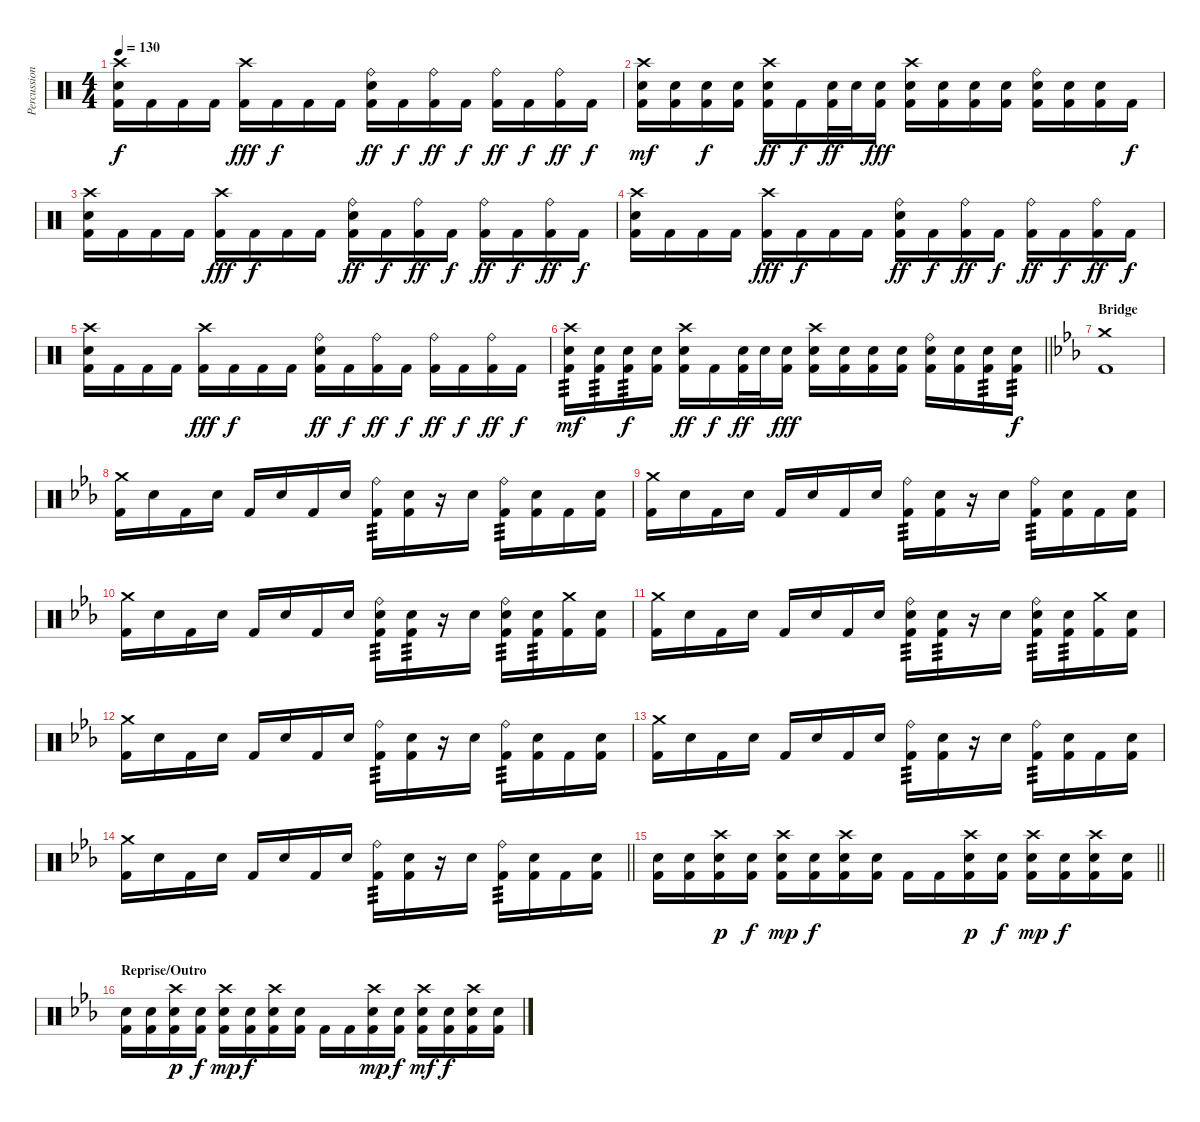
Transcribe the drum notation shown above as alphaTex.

\track ("Percussion" "Percussion") {instrument percussion}
\staff {score}
\articulation defaults
\ts (4 4)
\tempo 130
\clef neutral
\ks c
("Crash high (hit)" "Electric Snare (hit)" "Kick (hit) 2").16{dy f} "Kick (hit) 2".16 "Kick (hit) 2".16 "Kick (hit) 2".16 ("Crash high (hit)" "Kick (hit) 2").16{dy fff} "Kick (hit) 2".16{dy f} "Kick (hit) 2".16 "Kick (hit) 2".16 ("Ride (bell)" "Electric Snare (hit)" "Kick (hit) 2").16{dy ff} "Kick (hit) 2".16{dy f} ("Ride (bell)" "Kick (hit) 2").16{dy ff} "Kick (hit) 2".16{dy f} ("Ride (bell)" "Kick (hit) 2").16{dy ff} "Kick (hit) 2".16{dy f} ("Ride (bell)" "Kick (hit) 2").16{dy ff} "Kick (hit) 2".16{dy f} |
("Crash high (hit)" "Electric Snare (hit)" "Kick (hit) 2").16{dy mf} ("Electric Snare (hit)" "Kick (hit) 2").16 ("Electric Snare (hit)" "Kick (hit) 2").16{dy f} ("Electric Snare (hit)" "Kick (hit) 2").16 ("Crash high (hit)" "Electric Snare (hit)" "Kick (hit) 2").16{dy ff} "Kick (hit) 2".16{dy f} ("Electric Snare (hit)" "Kick (hit) 2").32{dy ff} "Electric Snare (hit)".32 ("Electric Snare (hit)" "Kick (hit) 2").16{dy fff} ("Crash high (hit)" "Electric Snare (hit)" "Kick (hit) 2").16 ("Electric Snare (hit)" "Kick (hit) 2").16 ("Electric Snare (hit)" "Kick (hit) 2").16 ("Electric Snare (hit)" "Kick (hit) 2").16 ("Ride (bell)" "Electric Snare (hit)" "Kick (hit) 2").16 ("Electric Snare (hit)" "Kick (hit) 2").16 ("Electric Snare (hit)" "Kick (hit) 2").16 "Kick (hit) 2".16{dy f} |
("Crash high (hit)" "Electric Snare (hit)" "Kick (hit) 2").16 "Kick (hit) 2".16 "Kick (hit) 2".16 "Kick (hit) 2".16 ("Crash high (hit)" "Kick (hit) 2").16{dy fff} "Kick (hit) 2".16{dy f} "Kick (hit) 2".16 "Kick (hit) 2".16 ("Ride (bell)" "Electric Snare (hit)" "Kick (hit) 2").16{dy ff} "Kick (hit) 2".16{dy f} ("Ride (bell)" "Kick (hit) 2").16{dy ff} "Kick (hit) 2".16{dy f} ("Ride (bell)" "Kick (hit) 2").16{dy ff} "Kick (hit) 2".16{dy f} ("Ride (bell)" "Kick (hit) 2").16{dy ff} "Kick (hit) 2".16{dy f} |
("Crash high (hit)" "Electric Snare (hit)" "Kick (hit) 2").16 "Kick (hit) 2".16 "Kick (hit) 2".16 "Kick (hit) 2".16 ("Crash high (hit)" "Kick (hit) 2").16{dy fff} "Kick (hit) 2".16{dy f} "Kick (hit) 2".16 "Kick (hit) 2".16 ("Ride (bell)" "Electric Snare (hit)" "Kick (hit) 2").16{dy ff} "Kick (hit) 2".16{dy f} ("Ride (bell)" "Kick (hit) 2").16{dy ff} "Kick (hit) 2".16{dy f} ("Ride (bell)" "Kick (hit) 2").16{dy ff} "Kick (hit) 2".16{dy f} ("Ride (bell)" "Kick (hit) 2").16{dy ff} "Kick (hit) 2".16{dy f} |
("Crash high (hit)" "Electric Snare (hit)" "Kick (hit) 2").16 "Kick (hit) 2".16 "Kick (hit) 2".16 "Kick (hit) 2".16 ("Crash high (hit)" "Kick (hit) 2").16{dy fff} "Kick (hit) 2".16{dy f} "Kick (hit) 2".16 "Kick (hit) 2".16 ("Ride (bell)" "Electric Snare (hit)" "Kick (hit) 2").16{dy ff} "Kick (hit) 2".16{dy f} ("Ride (bell)" "Kick (hit) 2").16{dy ff} "Kick (hit) 2".16{dy f} ("Ride (bell)" "Kick (hit) 2").16{dy ff} "Kick (hit) 2".16{dy f} ("Ride (bell)" "Kick (hit) 2").16{dy ff} "Kick (hit) 2".16{dy f} |
\barLineRight lightlight
("Crash high (hit)" "Electric Snare (hit)" "Kick (hit) 2").16{tp 3 dy mf} ("Electric Snare (hit)" "Kick (hit) 2").16{tp 3} ("Electric Snare (hit)" "Kick (hit) 2").16{tp 3 dy f} ("Electric Snare (hit)" "Kick (hit) 2").16 ("Crash high (hit)" "Electric Snare (hit)" "Kick (hit) 2").16{dy ff} "Kick (hit) 2".16{dy f} ("Electric Snare (hit)" "Kick (hit) 2").32{dy ff} "Electric Snare (hit)".32 ("Electric Snare (hit)" "Kick (hit) 2").16{dy fff} ("Crash high (hit)" "Electric Snare (hit)" "Kick (hit) 2").16 ("Electric Snare (hit)" "Kick (hit) 2").16 ("Electric Snare (hit)" "Kick (hit) 2").16 ("Electric Snare (hit)" "Kick (hit) 2").16 ("Ride (bell)" "Electric Snare (hit)" "Kick (hit) 2").16 ("Electric Snare (hit)" "Kick (hit) 2").16 ("Electric Snare (hit)" "Kick (hit) 2").16{tp 3} ("Electric Snare (hit)" "Kick (hit) 2").16{tp 3 dy f} |
\section ("" "Bridge")
\ks eb
("Crash medium (hit)" "Kick (hit) 2").1 |
("Crash medium (hit)" "Kick (hit) 2").16 "Electric Snare (hit)".16 "Kick (hit) 2".16 "Electric Snare (hit)".16 "Kick (hit) 2".16 "Electric Snare (hit)".16 "Kick (hit) 2".16 "Electric Snare (hit)".16 ("Ride (bell)" "Kick (hit) 2").16{tp 3} ("Electric Snare (hit)" "Kick (hit) 2").16 r.16 "Electric Snare (hit)".16 ("Ride (bell)" "Kick (hit) 2").16{tp 3} ("Electric Snare (hit)" "Kick (hit) 2").16 "Kick (hit) 2".16 ("Electric Snare (hit)" "Kick (hit) 2").16 |
("Crash medium (hit)" "Kick (hit) 2").16 "Electric Snare (hit)".16 "Kick (hit) 2".16 "Electric Snare (hit)".16 "Kick (hit) 2".16 "Electric Snare (hit)".16 "Kick (hit) 2".16 "Electric Snare (hit)".16 ("Ride (bell)" "Kick (hit) 2").16{tp 3} ("Electric Snare (hit)" "Kick (hit) 2").16 r.16 "Electric Snare (hit)".16 ("Ride (bell)" "Kick (hit) 2").16{tp 3} ("Electric Snare (hit)" "Kick (hit) 2").16 "Kick (hit) 2".16 ("Electric Snare (hit)" "Kick (hit) 2").16 |
("Crash medium (hit)" "Kick (hit) 2").16 "Electric Snare (hit)".16 "Kick (hit) 2".16 "Electric Snare (hit)".16 "Kick (hit) 2".16 "Electric Snare (hit)".16 "Kick (hit) 2".16 "Electric Snare (hit)".16 ("Ride (bell)" "Electric Snare (hit)" "Kick (hit) 2").16{tp 3} ("Electric Snare (hit)" "Kick (hit) 2").16{tp 3} r.16 "Electric Snare (hit)".16 ("Ride (bell)" "Electric Snare (hit)" "Kick (hit) 2").16{tp 3} ("Electric Snare (hit)" "Kick (hit) 2").16{tp 3} ("Crash medium (hit)" "Kick (hit) 2").16 ("Electric Snare (hit)" "Kick (hit) 2").16 |
("Crash medium (hit)" "Kick (hit) 2").16 "Electric Snare (hit)".16 "Kick (hit) 2".16 "Electric Snare (hit)".16 "Kick (hit) 2".16 "Electric Snare (hit)".16 "Kick (hit) 2".16 "Electric Snare (hit)".16 ("Ride (bell)" "Electric Snare (hit)" "Kick (hit) 2").16{tp 3} ("Electric Snare (hit)" "Kick (hit) 2").16{tp 3} r.16 "Electric Snare (hit)".16 ("Ride (bell)" "Electric Snare (hit)" "Kick (hit) 2").16{tp 3} ("Electric Snare (hit)" "Kick (hit) 2").16{tp 3} ("Crash medium (hit)" "Kick (hit) 2").16 ("Electric Snare (hit)" "Kick (hit) 2").16 |
("Crash medium (hit)" "Kick (hit) 2").16 "Electric Snare (hit)".16 "Kick (hit) 2".16 "Electric Snare (hit)".16 "Kick (hit) 2".16 "Electric Snare (hit)".16 "Kick (hit) 2".16 "Electric Snare (hit)".16 ("Ride (bell)" "Kick (hit) 2").16{tp 3} ("Electric Snare (hit)" "Kick (hit) 2").16 r.16 "Electric Snare (hit)".16 ("Ride (bell)" "Kick (hit) 2").16{tp 3} ("Electric Snare (hit)" "Kick (hit) 2").16 "Kick (hit) 2".16 ("Electric Snare (hit)" "Kick (hit) 2").16 |
("Crash medium (hit)" "Kick (hit) 2").16 "Electric Snare (hit)".16 "Kick (hit) 2".16 "Electric Snare (hit)".16 "Kick (hit) 2".16 "Electric Snare (hit)".16 "Kick (hit) 2".16 "Electric Snare (hit)".16 ("Ride (bell)" "Kick (hit) 2").16{tp 3} ("Electric Snare (hit)" "Kick (hit) 2").16 r.16 "Electric Snare (hit)".16 ("Ride (bell)" "Kick (hit) 2").16{tp 3} ("Electric Snare (hit)" "Kick (hit) 2").16 "Kick (hit) 2".16 ("Electric Snare (hit)" "Kick (hit) 2").16 |
\barLineRight lightlight
("Crash medium (hit)" "Kick (hit) 2").16 "Electric Snare (hit)".16 "Kick (hit) 2".16 "Electric Snare (hit)".16 "Kick (hit) 2".16 "Electric Snare (hit)".16 "Kick (hit) 2".16 "Electric Snare (hit)".16 ("Ride (bell)" "Kick (hit) 2").16{tp 3} ("Electric Snare (hit)" "Kick (hit) 2").16 r.16 "Electric Snare (hit)".16 ("Ride (bell)" "Kick (hit) 2").16{tp 3} ("Electric Snare (hit)" "Kick (hit) 2").16 "Kick (hit) 2".16 ("Electric Snare (hit)" "Kick (hit) 2").16 |
\barLineRight lightlight
("Electric Snare (hit)" "Kick (hit) 2").16 ("Electric Snare (hit)" "Kick (hit) 2").16 ("Crash high (hit)" "Electric Snare (hit)" "Kick (hit) 2").16{dy p} ("Electric Snare (hit)" "Kick (hit) 2").16{dy f} ("Crash high (hit)" "Electric Snare (hit)" "Kick (hit) 2").16{dy mp} ("Electric Snare (hit)" "Kick (hit) 2").16{dy f} ("Crash high (hit)" "Electric Snare (hit)" "Kick (hit) 2").16 ("Electric Snare (hit)" "Kick (hit) 2").16 "Kick (hit) 2".16 "Kick (hit) 2".16 ("Crash high (hit)" "Electric Snare (hit)" "Kick (hit) 2").16{dy p} ("Electric Snare (hit)" "Kick (hit) 2").16{dy f} ("Crash high (hit)" "Electric Snare (hit)" "Kick (hit) 2").16{dy mp} ("Electric Snare (hit)" "Kick (hit) 2").16{dy f} ("Crash high (hit)" "Electric Snare (hit)" "Kick (hit) 2").16 ("Electric Snare (hit)" "Kick (hit) 2").16 |
\section ("" "Reprise/Outro")
("Electric Snare (hit)" "Kick (hit) 2").16 ("Electric Snare (hit)" "Kick (hit) 2").16 ("Crash high (hit)" "Electric Snare (hit)" "Kick (hit) 2").16{dy p} ("Electric Snare (hit)" "Kick (hit) 2").16{dy f} ("Crash high (hit)" "Electric Snare (hit)" "Kick (hit) 2").16{dy mp} ("Electric Snare (hit)" "Kick (hit) 2").16{dy f} ("Crash high (hit)" "Electric Snare (hit)" "Kick (hit) 2").16 ("Electric Snare (hit)" "Kick (hit) 2").16 "Kick (hit) 2".16 "Kick (hit) 2".16 ("Crash high (hit)" "Electric Snare (hit)" "Kick (hit) 2").16{dy mp} ("Electric Snare (hit)" "Kick (hit) 2").16{dy f} ("Crash high (hit)" "Electric Snare (hit)" "Kick (hit) 2").16{dy mf} ("Electric Snare (hit)" "Kick (hit) 2").16{dy f} ("Crash high (hit)" "Electric Snare (hit)" "Kick (hit) 2").16 ("Electric Snare (hit)" "Kick (hit) 2").16
